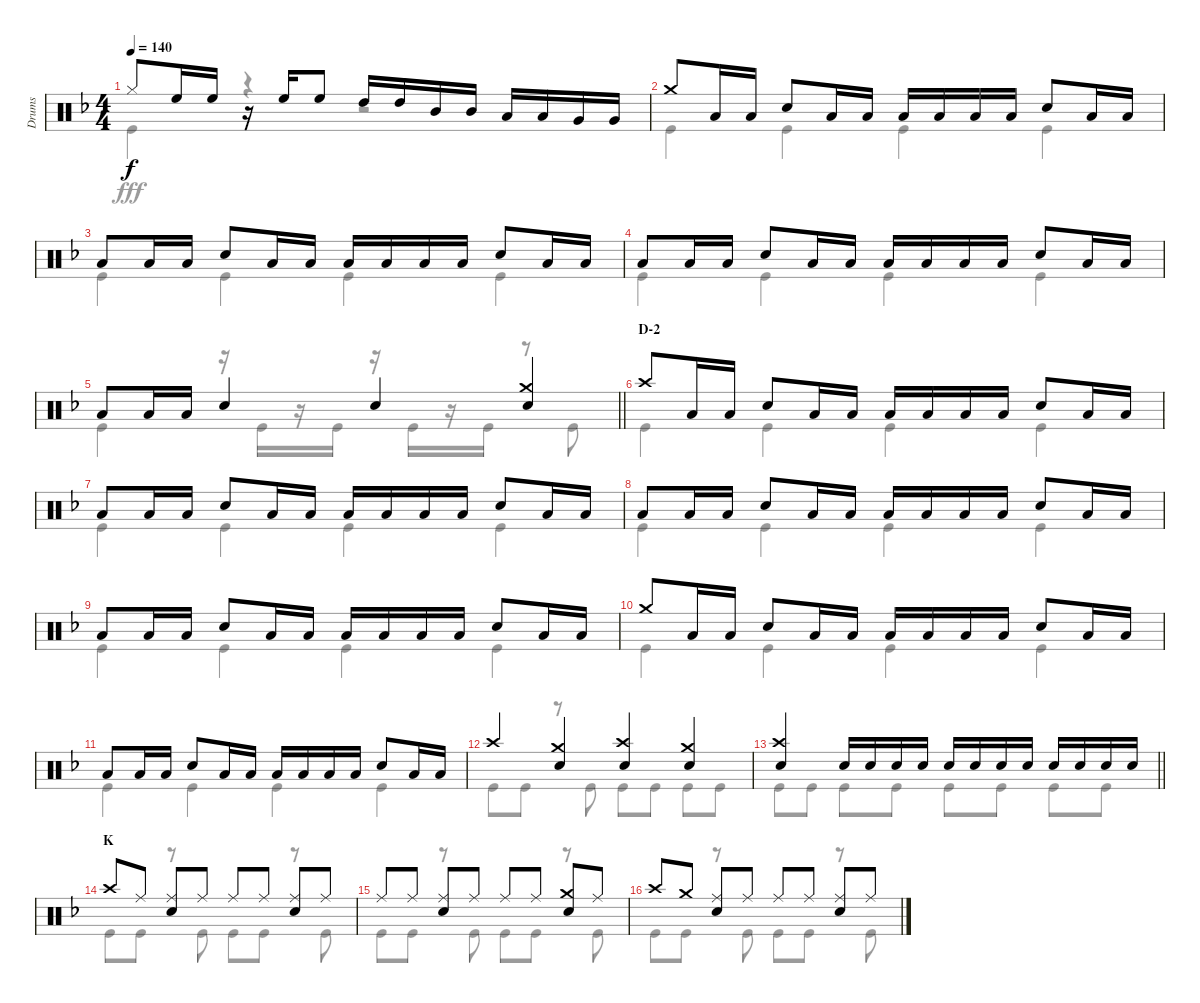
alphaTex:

\track ("Drums" "Drums") {instrument percussion}
\staff {score}
\articulation defaults
\voice
\ts (4 4)
\tempo 140
\clef neutral
\ks f "Hi-Hat (closed)".8{dy f} "High Floor Tom (hit)".16 "High Floor Tom (hit)".16
r.16 "High Floor Tom (hit)".16 "High Floor Tom (hit)".8 "High Tom (hit)".16 "High Tom (hit)".16 "Mid Tom (hit)".16 "Mid Tom (hit)".16 "Low Tom (hit)".16 "Low Tom (hit)".16 "Very Low Tom (hit)".16 "Very Low Tom (hit)".16 |
"Crash medium (hit)".8 "Low Tom (hit)".16 "Low Tom (hit)".16 "Snare (hit) 2".8 "Low Tom (hit)".16 "Low Tom (hit)".16 "Low Tom (hit)".16 "Low Tom (hit)".16 "Low Tom (hit)".16 "Low Tom (hit)".16 "Snare (hit) 2".8 "Low Tom (hit)".16 "Low Tom (hit)".16 |
"Low Tom (hit)".8 "Low Tom (hit)".16 "Low Tom (hit)".16 "Snare (hit) 2".8 "Low Tom (hit)".16 "Low Tom (hit)".16 "Low Tom (hit)".16 "Low Tom (hit)".16 "Low Tom (hit)".16 "Low Tom (hit)".16 "Snare (hit) 2".8 "Low Tom (hit)".16 "Low Tom (hit)".16 |
"Low Tom (hit)".8 "Low Tom (hit)".16 "Low Tom (hit)".16 "Snare (hit) 2".8 "Low Tom (hit)".16 "Low Tom (hit)".16 "Low Tom (hit)".16 "Low Tom (hit)".16 "Low Tom (hit)".16 "Low Tom (hit)".16 "Snare (hit) 2".8 "Low Tom (hit)".16 "Low Tom (hit)".16 |
\barLineRight lightlight "Low Tom (hit)".8 "Low Tom (hit)".16 "Low Tom (hit)".16 "Snare (hit) 2".4 "Snare (hit) 2".4
("Crash medium (hit)" "Snare (hit) 2").4 |
\section ("" "D-2")
"Crash high (hit)".8 "Low Tom (hit)".16 "Low Tom (hit)".16 "Snare (hit) 2".8 "Low Tom (hit)".16 "Low Tom (hit)".16 "Low Tom (hit)".16 "Low Tom (hit)".16 "Low Tom (hit)".16 "Low Tom (hit)".16 "Snare (hit) 2".8 "Low Tom (hit)".16 "Low Tom (hit)".16 |
"Low Tom (hit)".8 "Low Tom (hit)".16 "Low Tom (hit)".16 "Snare (hit) 2".8 "Low Tom (hit)".16 "Low Tom (hit)".16 "Low Tom (hit)".16 "Low Tom (hit)".16 "Low Tom (hit)".16 "Low Tom (hit)".16 "Snare (hit) 2".8 "Low Tom (hit)".16 "Low Tom (hit)".16 |
"Low Tom (hit)".8 "Low Tom (hit)".16 "Low Tom (hit)".16 "Snare (hit) 2".8 "Low Tom (hit)".16 "Low Tom (hit)".16 "Low Tom (hit)".16 "Low Tom (hit)".16 "Low Tom (hit)".16 "Low Tom (hit)".16 "Snare (hit) 2".8 "Low Tom (hit)".16 "Low Tom (hit)".16 |
"Low Tom (hit)".8 "Low Tom (hit)".16 "Low Tom (hit)".16 "Snare (hit) 2".8 "Low Tom (hit)".16 "Low Tom (hit)".16 "Low Tom (hit)".16 "Low Tom (hit)".16 "Low Tom (hit)".16 "Low Tom (hit)".16 "Snare (hit) 2".8 "Low Tom (hit)".16 "Low Tom (hit)".16 |
"Crash medium (hit)".8 "Low Tom (hit)".16 "Low Tom (hit)".16 "Snare (hit) 2".8 "Low Tom (hit)".16 "Low Tom (hit)".16 "Low Tom (hit)".16 "Low Tom (hit)".16 "Low Tom (hit)".16 "Low Tom (hit)".16 "Snare (hit) 2".8 "Low Tom (hit)".16 "Low Tom (hit)".16 |
"Low Tom (hit)".8 "Low Tom (hit)".16 "Low Tom (hit)".16 "Snare (hit) 2".8 "Low Tom (hit)".16 "Low Tom (hit)".16 "Low Tom (hit)".16 "Low Tom (hit)".16 "Low Tom (hit)".16 "Low Tom (hit)".16 "Snare (hit) 2".8 "Low Tom (hit)".16 "Low Tom (hit)".16 |
"Crash high (hit)".4 ("Crash medium (hit)" "Snare (hit) 2").4 ("Crash high (hit)" "Snare (hit) 2").4 ("Crash medium (hit)" "Snare (hit) 2").4 |
\barLineRight lightlight
("Crash high (hit)" "Snare (hit) 2").4 "Snare (hit) 2".16 "Snare (hit) 2".16 "Snare (hit) 2".16 "Snare (hit) 2".16 "Snare (hit) 2".16 "Snare (hit) 2".16 "Snare (hit) 2".16 "Snare (hit) 2".16 "Snare (hit) 2".16 "Snare (hit) 2".16 "Snare (hit) 2".16 "Snare (hit) 2".16 |
\section ("" "K")
"Crash high (hit)".8 "Ride (middle)".8 ("Ride (middle)" "Snare (hit) 2").8 "Ride (middle)".8 "Ride (middle)".8 "Ride (middle)".8 ("Ride (middle)" "Snare (hit) 2").8 "Ride (middle)".8 |
"Ride (middle)".8 "Ride (middle)".8 ("Ride (middle)" "Snare (hit) 2").8 "Ride (middle)".8 "Ride (middle)".8 "Ride (middle)".8 ("Crash medium (hit)" "Snare (hit) 2").8 "Ride (middle)".8 |
"Crash high (hit)".8 "Crash medium (hit)".8 ("Ride (middle)" "Snare (hit) 2").8 "Ride (middle)".8 "Ride (middle)".8 "Ride (middle)".8 ("Ride (middle)" "Snare (hit) 2").8 "Ride (middle)".8
\voice
\clef neutral
\ottava regular
\simile none
\ks f "Kick (hit)".4{dy fff}
r.4 r.2 |
"Kick (hit)".4 "Kick (hit)".4 "Kick (hit)".4 "Kick (hit)".4 |
"Kick (hit)".4 "Kick (hit)".4 "Kick (hit)".4 "Kick (hit)".4 |
"Kick (hit)".4 "Kick (hit)".4 "Kick (hit)".4 "Kick (hit)".4 |
\barLineRight lightlight "Kick (hit)".4
r.16 "Kick (hit)".16 r.16 "Kick (hit)".16 r.16 "Kick (hit)".16 r.16 "Kick (hit)".16 r.8 "Kick (hit)".8 |
"Kick (hit)".4 "Kick (hit)".4 "Kick (hit)".4 "Kick (hit)".4 |
"Kick (hit)".4 "Kick (hit)".4 "Kick (hit)".4 "Kick (hit)".4 |
"Kick (hit)".4 "Kick (hit)".4 "Kick (hit)".4 "Kick (hit)".4 |
"Kick (hit)".4 "Kick (hit)".4 "Kick (hit)".4 "Kick (hit)".4 |
"Kick (hit)".4 "Kick (hit)".4 "Kick (hit)".4 "Kick (hit)".4 |
"Kick (hit)".4 "Kick (hit)".4 "Kick (hit)".4 "Kick (hit)".4 |
"Kick (hit)".8 "Kick (hit)".8 r.8 "Kick (hit)".8 "Kick (hit)".8 "Kick (hit)".8 "Kick (hit)".8 "Kick (hit)".8 |
\barLineRight lightlight "Kick (hit)".8 "Kick (hit)".8 "Kick (hit)".8 "Kick (hit)".8 "Kick (hit)".8 "Kick (hit)".8 "Kick (hit)".8 "Kick (hit)".8
|
"Kick (hit)".8 "Kick (hit)".8 r.8 "Kick (hit)".8 "Kick (hit)".8 "Kick (hit)".8 r.8 "Kick (hit)".8 |
"Kick (hit)".8 "Kick (hit)".8 r.8 "Kick (hit)".8 "Kick (hit)".8 "Kick (hit)".8 r.8 "Kick (hit)".8 |
"Kick (hit)".8 "Kick (hit)".8 r.8 "Kick (hit)".8 "Kick (hit)".8 "Kick (hit)".8 r.8 "Kick (hit)".8
